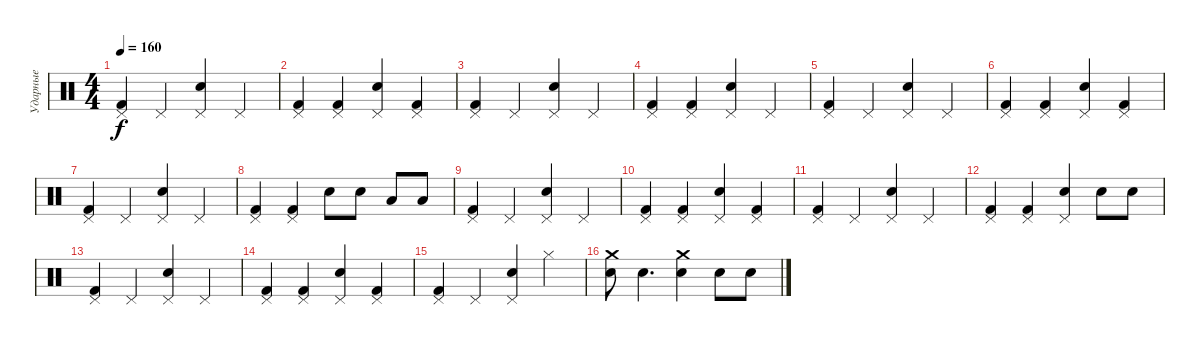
\track ("Ударные" "Ударные") {instrument percussion}
\staff {score}
\articulation defaults
\ts (4 4)
\tempo 160
\clef neutral
\ks c
("Pedal Hi-Hat (hit)" "Kick (hit) 2").4{dy f} "Pedal Hi-Hat (hit)".4 ("Electric Snare (hit)" "Pedal Hi-Hat (hit)").4 "Pedal Hi-Hat (hit)".4 |
("Pedal Hi-Hat (hit)" "Kick (hit) 2").4 ("Pedal Hi-Hat (hit)" "Kick (hit) 2").4 ("Electric Snare (hit)" "Pedal Hi-Hat (hit)").4 ("Pedal Hi-Hat (hit)" "Kick (hit) 2").4 |
("Pedal Hi-Hat (hit)" "Kick (hit) 2").4 "Pedal Hi-Hat (hit)".4 ("Electric Snare (hit)" "Pedal Hi-Hat (hit)").4 "Pedal Hi-Hat (hit)".4 |
("Pedal Hi-Hat (hit)" "Kick (hit) 2").4 ("Pedal Hi-Hat (hit)" "Kick (hit) 2").4 ("Electric Snare (hit)" "Pedal Hi-Hat (hit)").4 "Pedal Hi-Hat (hit)".4 |
("Pedal Hi-Hat (hit)" "Kick (hit) 2").4 "Pedal Hi-Hat (hit)".4 ("Electric Snare (hit)" "Pedal Hi-Hat (hit)").4 "Pedal Hi-Hat (hit)".4 |
("Pedal Hi-Hat (hit)" "Kick (hit) 2").4 ("Pedal Hi-Hat (hit)" "Kick (hit) 2").4 ("Electric Snare (hit)" "Pedal Hi-Hat (hit)").4 ("Pedal Hi-Hat (hit)" "Kick (hit) 2").4 |
("Pedal Hi-Hat (hit)" "Kick (hit) 2").4 "Pedal Hi-Hat (hit)".4 ("Electric Snare (hit)" "Pedal Hi-Hat (hit)").4 "Pedal Hi-Hat (hit)".4 |
("Pedal Hi-Hat (hit)" "Kick (hit) 2").4 ("Pedal Hi-Hat (hit)" "Kick (hit) 2").4 "Electric Snare (hit)".8 "Electric Snare (hit)".8 "Low Tom (hit)".8 "Low Tom (hit)".8 |
("Pedal Hi-Hat (hit)" "Kick (hit) 2").4 "Pedal Hi-Hat (hit)".4 ("Electric Snare (hit)" "Pedal Hi-Hat (hit)").4 "Pedal Hi-Hat (hit)".4 |
("Pedal Hi-Hat (hit)" "Kick (hit) 2").4 ("Pedal Hi-Hat (hit)" "Kick (hit) 2").4 ("Electric Snare (hit)" "Pedal Hi-Hat (hit)").4 ("Pedal Hi-Hat (hit)" "Kick (hit) 2").4 |
("Pedal Hi-Hat (hit)" "Kick (hit) 2").4 "Pedal Hi-Hat (hit)".4 ("Electric Snare (hit)" "Pedal Hi-Hat (hit)").4 "Pedal Hi-Hat (hit)".4 |
("Pedal Hi-Hat (hit)" "Kick (hit) 2").4 ("Pedal Hi-Hat (hit)" "Kick (hit) 2").4 ("Electric Snare (hit)" "Pedal Hi-Hat (hit)").4 "Electric Snare (hit)".8 "Electric Snare (hit)".8 |
("Pedal Hi-Hat (hit)" "Kick (hit) 2").4 "Pedal Hi-Hat (hit)".4 ("Electric Snare (hit)" "Pedal Hi-Hat (hit)").4 "Pedal Hi-Hat (hit)".4 |
("Pedal Hi-Hat (hit)" "Kick (hit) 2").4 ("Pedal Hi-Hat (hit)" "Kick (hit) 2").4 ("Electric Snare (hit)" "Pedal Hi-Hat (hit)").4 ("Pedal Hi-Hat (hit)" "Kick (hit) 2").4 |
("Pedal Hi-Hat (hit)" "Kick (hit) 2").4 "Pedal Hi-Hat (hit)".4 ("Electric Snare (hit)" "Pedal Hi-Hat (hit)").4 "Hi-Hat (closed)".4 |
("Crash medium (hit)" "Electric Snare (hit)").8 "Electric Snare (hit)".4{d} ("Crash medium (hit)" "Electric Snare (hit)").4 "Electric Snare (hit)".8 "Electric Snare (hit)".8
